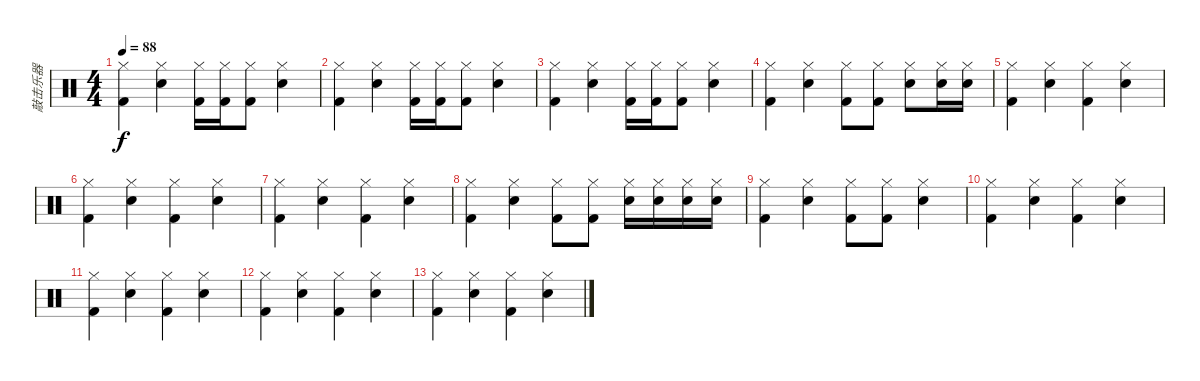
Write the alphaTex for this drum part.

\track ("敲击乐器" "敲击乐器") {instrument percussion}
\staff {score}
\articulation defaults
\ts (4 4)
\tempo 88
\clef neutral
\ks c
("Hi-Hat (closed)" "Kick (hit) 2").4{dy f} ("Hi-Hat (closed)" "Snare (hit) 2").4 ("Hi-Hat (closed)" "Kick (hit) 2").16 ("Hi-Hat (closed)" "Kick (hit) 2").16 ("Hi-Hat (closed)" "Kick (hit) 2").8 ("Hi-Hat (closed)" "Snare (hit) 2").4 |
("Hi-Hat (closed)" "Kick (hit) 2").4 ("Hi-Hat (closed)" "Snare (hit) 2").4 ("Hi-Hat (closed)" "Kick (hit) 2").16 ("Hi-Hat (closed)" "Kick (hit) 2").16 ("Hi-Hat (closed)" "Kick (hit) 2").8 ("Hi-Hat (closed)" "Snare (hit) 2").4 |
("Hi-Hat (closed)" "Kick (hit) 2").4 ("Hi-Hat (closed)" "Snare (hit) 2").4 ("Hi-Hat (closed)" "Kick (hit) 2").16 ("Hi-Hat (closed)" "Kick (hit) 2").16 ("Hi-Hat (closed)" "Kick (hit) 2").8 ("Hi-Hat (closed)" "Snare (hit) 2").4 |
("Hi-Hat (closed)" "Kick (hit) 2").4 ("Hi-Hat (closed)" "Snare (hit) 2").4 ("Hi-Hat (closed)" "Kick (hit) 2").8 ("Hi-Hat (closed)" "Kick (hit) 2").8 ("Hi-Hat (closed)" "Snare (hit) 2").8 ("Hi-Hat (closed)" "Snare (hit) 2").16 ("Hi-Hat (closed)" "Snare (hit) 2").16 |
("Hi-Hat (closed)" "Kick (hit) 2").4 ("Hi-Hat (closed)" "Snare (hit) 2").4 ("Hi-Hat (closed)" "Kick (hit) 2").4 ("Hi-Hat (closed)" "Snare (hit) 2").4 |
("Hi-Hat (closed)" "Kick (hit) 2").4 ("Hi-Hat (closed)" "Snare (hit) 2").4 ("Hi-Hat (closed)" "Kick (hit) 2").4 ("Hi-Hat (closed)" "Snare (hit) 2").4 |
("Hi-Hat (closed)" "Kick (hit) 2").4 ("Hi-Hat (closed)" "Snare (hit) 2").4 ("Hi-Hat (closed)" "Kick (hit) 2").4 ("Hi-Hat (closed)" "Snare (hit) 2").4 |
("Hi-Hat (closed)" "Kick (hit) 2").4 ("Hi-Hat (closed)" "Snare (hit) 2").4 ("Hi-Hat (closed)" "Kick (hit) 2").8 ("Hi-Hat (closed)" "Kick (hit) 2").8 ("Hi-Hat (closed)" "Snare (hit) 2").16 ("Hi-Hat (closed)" "Snare (hit) 2").16 ("Hi-Hat (closed)" "Snare (hit) 2").16 ("Hi-Hat (closed)" "Snare (hit) 2").16 |
("Hi-Hat (closed)" "Kick (hit) 2").4 ("Hi-Hat (closed)" "Snare (hit) 2").4 ("Hi-Hat (closed)" "Kick (hit) 2").8 ("Hi-Hat (closed)" "Kick (hit) 2").8 ("Hi-Hat (closed)" "Snare (hit) 2").4 |
("Hi-Hat (closed)" "Kick (hit) 2").4 ("Hi-Hat (closed)" "Snare (hit) 2").4 ("Hi-Hat (closed)" "Kick (hit) 2").4 ("Hi-Hat (closed)" "Snare (hit) 2").4 |
("Hi-Hat (closed)" "Kick (hit) 2").4 ("Hi-Hat (closed)" "Snare (hit) 2").4 ("Hi-Hat (closed)" "Kick (hit) 2").4 ("Hi-Hat (closed)" "Snare (hit) 2").4 |
("Hi-Hat (closed)" "Kick (hit) 2").4 ("Hi-Hat (closed)" "Snare (hit) 2").4 ("Hi-Hat (closed)" "Kick (hit) 2").4 ("Hi-Hat (closed)" "Snare (hit) 2").4 |
("Hi-Hat (closed)" "Kick (hit) 2").4 ("Hi-Hat (closed)" "Snare (hit) 2").4 ("Hi-Hat (closed)" "Kick (hit) 2").4 ("Hi-Hat (closed)" "Snare (hit) 2").4
